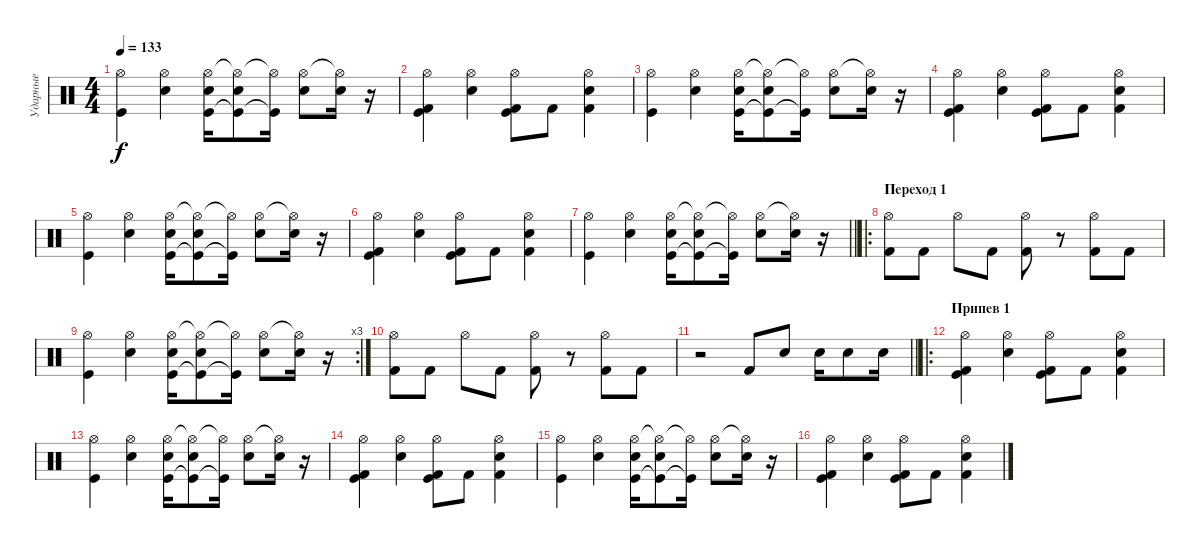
\track ("Ударные" "Ударные") {instrument percussion}
\staff {score}
\articulation defaults
\ts (4 4)
\tempo 133
\clef neutral
\ks c
("Hi-Hat (open)" "Kick (hit)").4{dy f} ("Hi-Hat (open)" "Snare (hit) 2").4 ("Hi-Hat (open)" "Kick (hit)" "Snare (hit) 2").16 ("Hi-Hat (open)"{t} "Kick (hit)"{t} "Snare (hit) 2").8 ("Hi-Hat (open)"{t} "Kick (hit)"{t}).16 ("Hi-Hat (open)" "Snare (hit) 2").8 ("Hi-Hat (open)"{t} "Snare (hit) 2").16 r.16 |
("Hi-Hat (open)" "Kick (hit) 2" "Kick (hit)").4 ("Hi-Hat (open)" "Snare (hit) 2").4 ("Hi-Hat (open)" "Kick (hit) 2" "Kick (hit)").8 "Kick (hit) 2".8 ("Hi-Hat (open)" "Kick (hit) 2" "Snare (hit) 2").4 |
("Hi-Hat (open)" "Kick (hit)").4 ("Hi-Hat (open)" "Snare (hit) 2").4 ("Hi-Hat (open)" "Kick (hit)" "Snare (hit) 2").16 ("Hi-Hat (open)"{t} "Kick (hit)"{t} "Snare (hit) 2").8 ("Hi-Hat (open)"{t} "Kick (hit)"{t}).16 ("Hi-Hat (open)" "Snare (hit) 2").8 ("Hi-Hat (open)"{t} "Snare (hit) 2").16 r.16 |
("Hi-Hat (open)" "Kick (hit) 2" "Kick (hit)").4 ("Hi-Hat (open)" "Snare (hit) 2").4 ("Hi-Hat (open)" "Kick (hit) 2" "Kick (hit)").8 "Kick (hit) 2".8 ("Hi-Hat (open)" "Kick (hit) 2" "Snare (hit) 2").4 |
("Hi-Hat (open)" "Kick (hit)").4 ("Hi-Hat (open)" "Snare (hit) 2").4 ("Hi-Hat (open)" "Kick (hit)" "Snare (hit) 2").16 ("Hi-Hat (open)"{t} "Kick (hit)"{t} "Snare (hit) 2").8 ("Hi-Hat (open)"{t} "Kick (hit)"{t}).16 ("Hi-Hat (open)" "Snare (hit) 2").8 ("Hi-Hat (open)"{t} "Snare (hit) 2").16 r.16 |
("Hi-Hat (open)" "Kick (hit) 2" "Kick (hit)").4 ("Hi-Hat (open)" "Snare (hit) 2").4 ("Hi-Hat (open)" "Kick (hit) 2" "Kick (hit)").8 "Kick (hit) 2".8 ("Hi-Hat (open)" "Kick (hit) 2" "Snare (hit) 2").4 |
\barLineRight lightlight
("Hi-Hat (open)" "Kick (hit)").4 ("Hi-Hat (open)" "Snare (hit) 2").4 ("Hi-Hat (open)" "Kick (hit)" "Snare (hit) 2").16 ("Hi-Hat (open)"{t} "Kick (hit)"{t} "Snare (hit) 2").8 ("Hi-Hat (open)"{t} "Kick (hit)"{t}).16 ("Hi-Hat (open)" "Snare (hit) 2").8 ("Hi-Hat (open)"{t} "Snare (hit) 2").16 r.16 |
\ro
\section ("" "Переход 1")
("Hi-Hat (open)" "Kick (hit) 2").8 "Kick (hit) 2".8 "Hi-Hat (open)".8 "Kick (hit) 2".8 ("Hi-Hat (open)" "Kick (hit) 2").8 r.8 ("Hi-Hat (open)" "Kick (hit) 2").8 "Kick (hit) 2".8 |
\rc 3
("Hi-Hat (open)" "Kick (hit)").4 ("Hi-Hat (open)" "Snare (hit) 2").4 ("Hi-Hat (open)" "Kick (hit)" "Snare (hit) 2").16 ("Hi-Hat (open)"{t} "Kick (hit)"{t} "Snare (hit) 2").8 ("Hi-Hat (open)"{t} "Kick (hit)"{t}).16 ("Hi-Hat (open)" "Snare (hit) 2").8 ("Hi-Hat (open)"{t} "Snare (hit) 2").16 r.16 |
("Hi-Hat (open)" "Kick (hit) 2").8 "Kick (hit) 2".8 "Hi-Hat (open)".8 "Kick (hit) 2".8 ("Hi-Hat (open)" "Kick (hit) 2").8 r.8 ("Hi-Hat (open)" "Kick (hit) 2").8 "Kick (hit) 2".8 |
\barLineRight lightlight
r.2 "Kick (hit) 2".8 "Snare (hit) 2".8 "Snare (hit) 2".16 "Snare (hit) 2".8 "Snare (hit) 2".16 |
\ro
\section ("" "Припев 1")
("Hi-Hat (open)" "Kick (hit) 2" "Kick (hit)").4 ("Hi-Hat (open)" "Snare (hit) 2").4 ("Hi-Hat (open)" "Kick (hit) 2" "Kick (hit)").8 "Kick (hit) 2".8 ("Hi-Hat (open)" "Kick (hit) 2" "Snare (hit) 2").4 |
("Hi-Hat (open)" "Kick (hit)").4 ("Hi-Hat (open)" "Snare (hit) 2").4 ("Hi-Hat (open)" "Kick (hit)" "Snare (hit) 2").16 ("Hi-Hat (open)"{t} "Kick (hit)"{t} "Snare (hit) 2").8 ("Hi-Hat (open)"{t} "Kick (hit)"{t}).16 ("Hi-Hat (open)" "Snare (hit) 2").8 ("Hi-Hat (open)"{t} "Snare (hit) 2").16 r.16 |
("Hi-Hat (open)" "Kick (hit) 2" "Kick (hit)").4 ("Hi-Hat (open)" "Snare (hit) 2").4 ("Hi-Hat (open)" "Kick (hit) 2" "Kick (hit)").8 "Kick (hit) 2".8 ("Hi-Hat (open)" "Kick (hit) 2" "Snare (hit) 2").4 |
("Hi-Hat (open)" "Kick (hit)").4 ("Hi-Hat (open)" "Snare (hit) 2").4 ("Hi-Hat (open)" "Kick (hit)" "Snare (hit) 2").16 ("Hi-Hat (open)"{t} "Kick (hit)"{t} "Snare (hit) 2").8 ("Hi-Hat (open)"{t} "Kick (hit)"{t}).16 ("Hi-Hat (open)" "Snare (hit) 2").8 ("Hi-Hat (open)"{t} "Snare (hit) 2").16 r.16 |
("Hi-Hat (open)" "Kick (hit) 2" "Kick (hit)").4 ("Hi-Hat (open)" "Snare (hit) 2").4 ("Hi-Hat (open)" "Kick (hit) 2" "Kick (hit)").8 "Kick (hit) 2".8 ("Hi-Hat (open)" "Kick (hit) 2" "Snare (hit) 2").4
